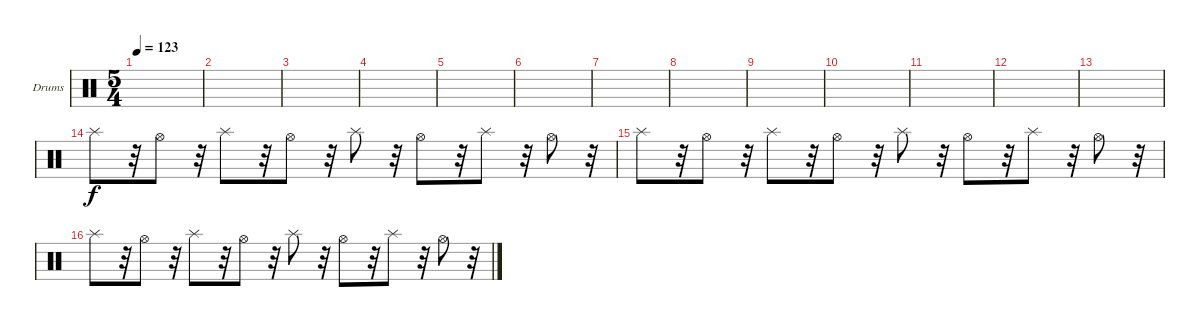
\defaultSystemsLayout 4
\bracketExtendMode groupsimilarinstruments
\firstSystemTrackNameOrientation horizontal
\otherSystemsTrackNameOrientation horizontal
\track ("Drumkit" "Drums") {instrument percussion}
\staff {score}
\articulation defaults
\ts (5 4)
\tempo 123
\clef neutral
\ks c
|
|
|
|
|
|
|
|
|
|
|
|
|
"Splash (hit)".8 r.32 "Hi-Hat (open)".8 r.32 "Splash (hit)".8 r.32 "Hi-Hat (open)".8 r.32 "Splash (hit)".8 r.32 "Hi-Hat (open)".8 r.32 "Splash (hit)".8 r.32 "Hi-Hat (open)".8 r.32 |
"Splash (hit)".8 r.32 "Hi-Hat (open)".8 r.32 "Splash (hit)".8 r.32 "Hi-Hat (open)".8 r.32 "Splash (hit)".8 r.32 "Hi-Hat (open)".8 r.32 "Splash (hit)".8 r.32 "Hi-Hat (open)".8 r.32 |
"Splash (hit)".8 r.32 "Hi-Hat (open)".8 r.32 "Splash (hit)".8 r.32 "Hi-Hat (open)".8 r.32 "Splash (hit)".8 r.32 "Hi-Hat (open)".8 r.32 "Splash (hit)".8 r.32 "Hi-Hat (open)".8 r.32
